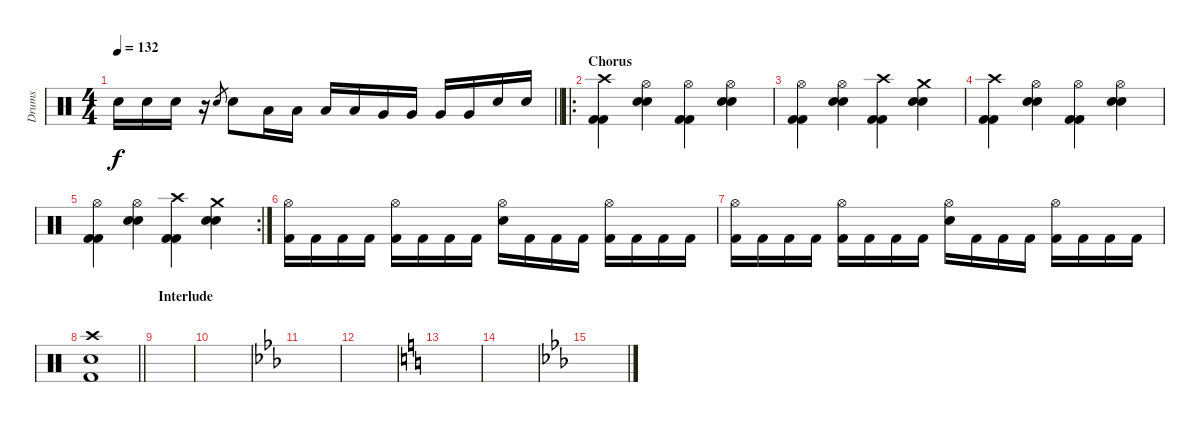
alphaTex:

\track ("Drums" "Drums") {instrument percussion}
\staff {score}
\articulation defaults
\ts (4 4)
\tempo 132
\clef neutral
\barLineRight lightlight
\ks c "Electric Snare (hit)".16{dy f} "Electric Snare (hit)".16 "Electric Snare (hit)".16
r.16 "Electric Snare (hit)".8{gr} "Electric Snare (hit)".8 "Low Tom (hit)".16 "Low Tom (hit)".16 "Low Tom (hit)".16 "Low Tom (hit)".16 "Very Low Tom (hit)".16 "Very Low Tom (hit)".16 "Very Low Tom (hit)".16 "Very Low Tom (hit)".16 "Snare (hit) 2".16 "Snare (hit) 2".16 |
\ro
\section ("" "Chorus")
("Crash high (hit)" "Kick (hit) 2" "Kick (hit) 2").4 ("Hi-Hat (open)" "Snare (hit) 2" "Snare (hit) 2").4 ("Hi-Hat (open)" "Kick (hit) 2" "Kick (hit) 2").4 ("Hi-Hat (open)" "Snare (hit) 2" "Snare (hit) 2").4 |
("Hi-Hat (open)" "Kick (hit) 2" "Kick (hit) 2").4 ("Hi-Hat (open)" "Snare (hit) 2" "Snare (hit) 2").4 ("Crash high (hit)" "Kick (hit) 2" "Kick (hit) 2").4 ("Crash medium (hit)" "Snare (hit) 2" "Snare (hit) 2").4 |
("Crash high (hit)" "Kick (hit) 2" "Kick (hit) 2").4 ("Hi-Hat (open)" "Snare (hit) 2" "Snare (hit) 2").4 ("Hi-Hat (open)" "Kick (hit) 2" "Kick (hit) 2").4 ("Hi-Hat (open)" "Snare (hit) 2" "Snare (hit) 2").4 |
\rc 2
("Hi-Hat (open)" "Kick (hit) 2" "Kick (hit) 2").4 ("Hi-Hat (open)" "Snare (hit) 2" "Snare (hit) 2").4 ("Crash high (hit)" "Kick (hit) 2" "Kick (hit) 2").4 ("Crash medium (hit)" "Snare (hit) 2" "Snare (hit) 2").4 |
("Hi-Hat (open)" "Kick (hit) 2").16 "Kick (hit) 2".16 "Kick (hit) 2".16 "Kick (hit) 2".16 ("Hi-Hat (open)" "Kick (hit) 2").16 "Kick (hit) 2".16 "Kick (hit) 2".16 "Kick (hit) 2".16 ("Hi-Hat (open)" "Snare (hit) 2").16 "Kick (hit) 2".16 "Kick (hit) 2".16 "Kick (hit) 2".16 ("Hi-Hat (open)" "Kick (hit) 2").16 "Kick (hit) 2".16 "Kick (hit) 2".16 "Kick (hit) 2".16 |
("Hi-Hat (open)" "Kick (hit) 2").16 "Kick (hit) 2".16 "Kick (hit) 2".16 "Kick (hit) 2".16 ("Hi-Hat (open)" "Kick (hit) 2").16 "Kick (hit) 2".16 "Kick (hit) 2".16 "Kick (hit) 2".16 ("Hi-Hat (open)" "Snare (hit) 2").16 "Kick (hit) 2".16 "Kick (hit) 2".16 "Kick (hit) 2".16 ("Hi-Hat (open)" "Kick (hit) 2").16 "Kick (hit) 2".16 "Kick (hit) 2".16 "Kick (hit) 2".16 |
\barLineRight lightlight
("Crash high (hit)" "Snare (hit) 2" "Kick (hit) 2").1 |
\section ("" "Interlude")
|
|
\ks eb
|
|
\ks c
|
|
\ks eb
